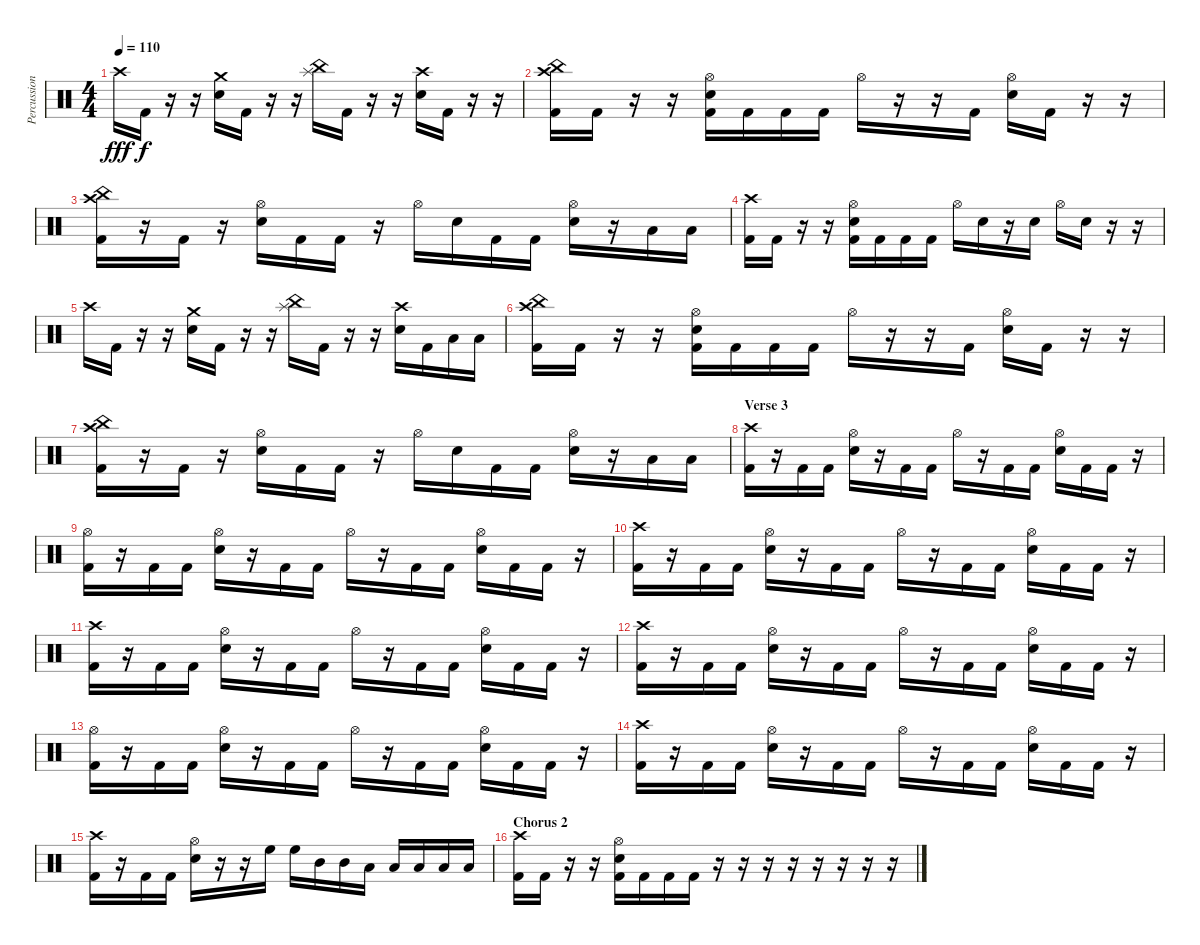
\track ("Percussion" "Percussion") {instrument percussion}
\staff {score}
\articulation defaults
\ts (4 4)
\tempo 110
\clef neutral
\ks c "Crash high (hit)".16{dy fff} "Kick (hit) 2".16{dy f}
r.16 r.16 ("Crash medium (hit)" "Electric Snare (hit)").16 "Kick (hit) 2".16 r.16 r.16 ("Splash (hit)" "China (hit)").16 "Kick (hit) 2".16 r.16 r.16 ("Crash high (hit)" "Electric Snare (hit)").16 "Kick (hit) 2".16 r.16 r.16 |
("China (hit)" "Crash high (hit)" "Kick (hit) 2").16 "Kick (hit) 2".16 r.16 r.16 ("Hi-Hat (open)" "Electric Snare (hit)" "Kick (hit) 2").16 "Kick (hit) 2".16 "Kick (hit) 2".16 "Kick (hit) 2".16 "Hi-Hat (open)".16 r.16 r.16 "Kick (hit) 2".16 ("Hi-Hat (open)" "Electric Snare (hit)").16 "Kick (hit) 2".16 r.16 r.16 |
("China (hit)" "Crash high (hit)" "Kick (hit) 2").16 r.16 "Kick (hit) 2".16 r.16 ("Hi-Hat (open)" "Electric Snare (hit)").16 "Kick (hit) 2".16 "Kick (hit) 2".16 r.16 "Hi-Hat (open)".16 "Electric Snare (hit)".16 "Kick (hit) 2".16 "Kick (hit) 2".16 ("Hi-Hat (open)" "Electric Snare (hit)").16 r.16 "Low Tom (hit)".16 "Low Floor Tom (hit)".16 |
("Crash high (hit)" "Kick (hit) 2").16 "Kick (hit) 2".16 r.16 r.16 ("Hi-Hat (open)" "Electric Snare (hit)" "Kick (hit) 2").16 "Kick (hit) 2".16 "Kick (hit) 2".16 "Kick (hit) 2".16 "Hi-Hat (open)".16 "Electric Snare (hit)".16 r.16 "Electric Snare (hit)".16 "Hi-Hat (open)".16 "Electric Snare (hit)".16 r.16 r.16 |
"Crash high (hit)".16 "Kick (hit) 2".16 r.16 r.16 ("Crash medium (hit)" "Electric Snare (hit)").16 "Kick (hit) 2".16 r.16 r.16 ("Splash (hit)" "China (hit)").16 "Kick (hit) 2".16 r.16 r.16 ("Crash high (hit)" "Electric Snare (hit)").16 "Kick (hit) 2".16 "Low Tom (hit)".16 "Low Floor Tom (hit)".16 |
("China (hit)" "Crash high (hit)" "Kick (hit) 2").16 "Kick (hit) 2".16 r.16 r.16 ("Hi-Hat (open)" "Electric Snare (hit)" "Kick (hit) 2").16 "Kick (hit) 2".16 "Kick (hit) 2".16 "Kick (hit) 2".16 "Hi-Hat (open)".16 r.16 r.16 "Kick (hit) 2".16 ("Hi-Hat (open)" "Electric Snare (hit)").16 "Kick (hit) 2".16 r.16 r.16 |
("China (hit)" "Crash high (hit)" "Kick (hit) 2").16 r.16 "Kick (hit) 2".16 r.16 ("Hi-Hat (open)" "Electric Snare (hit)").16 "Kick (hit) 2".16 "Kick (hit) 2".16 r.16 "Hi-Hat (open)".16 "Electric Snare (hit)".16 "Kick (hit) 2".16 "Kick (hit) 2".16 ("Hi-Hat (open)" "Electric Snare (hit)").16 r.16 "Low Tom (hit)".16 "Low Floor Tom (hit)".16 |
\section ("" "Verse 3")
("Crash high (hit)" "Kick (hit) 2").16 r.16 "Kick (hit) 2".16 "Kick (hit) 2".16 ("Hi-Hat (open)" "Electric Snare (hit)").16 r.16 "Kick (hit) 2".16 "Kick (hit) 2".16 "Hi-Hat (open)".16 r.16 "Kick (hit) 2".16 "Kick (hit) 2".16 ("Hi-Hat (open)" "Electric Snare (hit)").16 "Kick (hit) 2".16 "Kick (hit) 2".16 r.16 |
("Hi-Hat (open)" "Kick (hit) 2").16 r.16 "Kick (hit) 2".16 "Kick (hit) 2".16 ("Hi-Hat (open)" "Electric Snare (hit)").16 r.16 "Kick (hit) 2".16 "Kick (hit) 2".16 "Hi-Hat (open)".16 r.16 "Kick (hit) 2".16 "Kick (hit) 2".16 ("Hi-Hat (open)" "Electric Snare (hit)").16 "Kick (hit) 2".16 "Kick (hit) 2".16 r.16 |
("Crash high (hit)" "Kick (hit) 2").16 r.16 "Kick (hit) 2".16 "Kick (hit) 2".16 ("Hi-Hat (open)" "Electric Snare (hit)").16 r.16 "Kick (hit) 2".16 "Kick (hit) 2".16 "Hi-Hat (open)".16 r.16 "Kick (hit) 2".16 "Kick (hit) 2".16 ("Hi-Hat (open)" "Electric Snare (hit)").16 "Kick (hit) 2".16 "Kick (hit) 2".16 r.16 |
("Crash high (hit)" "Kick (hit) 2").16 r.16 "Kick (hit) 2".16 "Kick (hit) 2".16 ("Hi-Hat (open)" "Electric Snare (hit)").16 r.16 "Kick (hit) 2".16 "Kick (hit) 2".16 "Hi-Hat (open)".16 r.16 "Kick (hit) 2".16 "Kick (hit) 2".16 ("Hi-Hat (open)" "Electric Snare (hit)").16 "Kick (hit) 2".16 "Kick (hit) 2".16 r.16 |
("Crash high (hit)" "Kick (hit) 2").16 r.16 "Kick (hit) 2".16 "Kick (hit) 2".16 ("Hi-Hat (open)" "Electric Snare (hit)").16 r.16 "Kick (hit) 2".16 "Kick (hit) 2".16 "Hi-Hat (open)".16 r.16 "Kick (hit) 2".16 "Kick (hit) 2".16 ("Hi-Hat (open)" "Electric Snare (hit)").16 "Kick (hit) 2".16 "Kick (hit) 2".16 r.16 |
("Hi-Hat (open)" "Kick (hit) 2").16 r.16 "Kick (hit) 2".16 "Kick (hit) 2".16 ("Hi-Hat (open)" "Electric Snare (hit)").16 r.16 "Kick (hit) 2".16 "Kick (hit) 2".16 "Hi-Hat (open)".16 r.16 "Kick (hit) 2".16 "Kick (hit) 2".16 ("Hi-Hat (open)" "Electric Snare (hit)").16 "Kick (hit) 2".16 "Kick (hit) 2".16 r.16 |
("Crash high (hit)" "Kick (hit) 2").16 r.16 "Kick (hit) 2".16 "Kick (hit) 2".16 ("Hi-Hat (open)" "Electric Snare (hit)").16 r.16 "Kick (hit) 2".16 "Kick (hit) 2".16 "Hi-Hat (open)".16 r.16 "Kick (hit) 2".16 "Kick (hit) 2".16 ("Hi-Hat (open)" "Electric Snare (hit)").16 "Kick (hit) 2".16 "Kick (hit) 2".16 r.16 |
("Crash high (hit)" "Kick (hit) 2").16 r.16 "Kick (hit) 2".16 "Kick (hit) 2".16 ("Hi-Hat (open)" "Electric Snare (hit)").16 r.16 r.16 "High Floor Tom (hit)".16 "High Floor Tom (hit)".16 "Mid Tom (hit)".16 "Mid Tom (hit)".16 "Low Tom (hit)".16 "Low Tom (hit)".16 "Low Tom (hit)".16 "Low Floor Tom (hit)".16 "Low Floor Tom (hit)".16 |
\section ("" "Chorus 2")
("Crash high (hit)" "Kick (hit) 2").16 "Kick (hit) 2".16 r.16 r.16 ("Hi-Hat (open)" "Electric Snare (hit)" "Kick (hit) 2").16 "Kick (hit) 2".16 "Kick (hit) 2".16 "Kick (hit) 2".16 r.16 r.16 r.16 r.16 r.16 r.16 r.16 r.16
